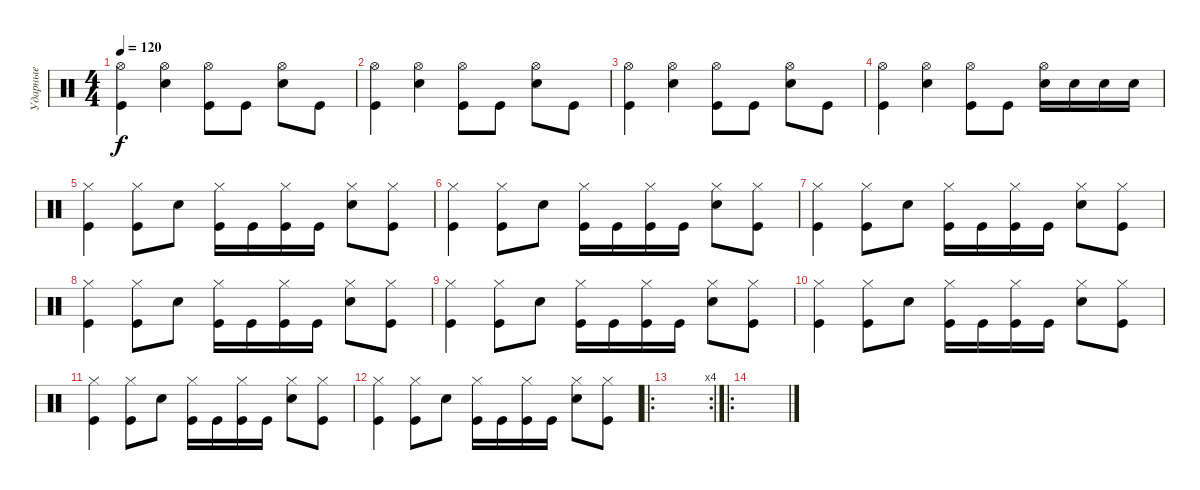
\track ("Ударные" "Ударные") {instrument percussion}
\staff {score}
\articulation defaults
\ts (4 4)
\tempo 120
\clef neutral
\ks c
("Kick (hit)" "Hi-Hat (open)").4{dy f} ("Electric Snare (hit)" "Hi-Hat (open)").4 ("Kick (hit)" "Hi-Hat (open)").8 "Kick (hit)".8 ("Electric Snare (hit)" "Hi-Hat (open)").8 "Kick (hit)".8 |
("Kick (hit)" "Hi-Hat (open)").4 ("Electric Snare (hit)" "Hi-Hat (open)").4 ("Kick (hit)" "Hi-Hat (open)").8 "Kick (hit)".8 ("Electric Snare (hit)" "Hi-Hat (open)").8 "Kick (hit)".8 |
("Kick (hit)" "Hi-Hat (open)").4 ("Electric Snare (hit)" "Hi-Hat (open)").4 ("Kick (hit)" "Hi-Hat (open)").8 "Kick (hit)".8 ("Electric Snare (hit)" "Hi-Hat (open)").8 "Kick (hit)".8 |
("Kick (hit)" "Hi-Hat (open)").4 ("Electric Snare (hit)" "Hi-Hat (open)").4 ("Kick (hit)" "Hi-Hat (open)").8 "Kick (hit)".8 ("Electric Snare (hit)" "Hi-Hat (open)").16 "Electric Snare (hit)".16 "Electric Snare (hit)".16 "Electric Snare (hit)".16 |
("Kick (hit)" "Hi-Hat (closed)").4 ("Kick (hit)" "Hi-Hat (closed)").8 "Electric Snare (hit)".8 ("Kick (hit)" "Hi-Hat (closed)").16 "Kick (hit)".16 ("Kick (hit)" "Hi-Hat (closed)").16 "Kick (hit)".16 ("Electric Snare (hit)" "Hi-Hat (closed)").8 ("Kick (hit)" "Hi-Hat (closed)").8 |
("Kick (hit)" "Hi-Hat (closed)").4 ("Kick (hit)" "Hi-Hat (closed)").8 "Electric Snare (hit)".8 ("Kick (hit)" "Hi-Hat (closed)").16 "Kick (hit)".16 ("Kick (hit)" "Hi-Hat (closed)").16 "Kick (hit)".16 ("Electric Snare (hit)" "Hi-Hat (closed)").8 ("Kick (hit)" "Hi-Hat (closed)").8 |
("Kick (hit)" "Hi-Hat (closed)").4 ("Kick (hit)" "Hi-Hat (closed)").8 "Electric Snare (hit)".8 ("Kick (hit)" "Hi-Hat (closed)").16 "Kick (hit)".16 ("Kick (hit)" "Hi-Hat (closed)").16 "Kick (hit)".16 ("Electric Snare (hit)" "Hi-Hat (closed)").8 ("Kick (hit)" "Hi-Hat (closed)").8 |
("Kick (hit)" "Hi-Hat (closed)").4 ("Kick (hit)" "Hi-Hat (closed)").8 "Electric Snare (hit)".8 ("Kick (hit)" "Hi-Hat (closed)").16 "Kick (hit)".16 ("Kick (hit)" "Hi-Hat (closed)").16 "Kick (hit)".16 ("Electric Snare (hit)" "Hi-Hat (closed)").8 ("Kick (hit)" "Hi-Hat (closed)").8 |
("Kick (hit)" "Hi-Hat (closed)").4 ("Kick (hit)" "Hi-Hat (closed)").8 "Electric Snare (hit)".8 ("Kick (hit)" "Hi-Hat (closed)").16 "Kick (hit)".16 ("Kick (hit)" "Hi-Hat (closed)").16 "Kick (hit)".16 ("Electric Snare (hit)" "Hi-Hat (closed)").8 ("Kick (hit)" "Hi-Hat (closed)").8 |
("Kick (hit)" "Hi-Hat (closed)").4 ("Kick (hit)" "Hi-Hat (closed)").8 "Electric Snare (hit)".8 ("Kick (hit)" "Hi-Hat (closed)").16 "Kick (hit)".16 ("Kick (hit)" "Hi-Hat (closed)").16 "Kick (hit)".16 ("Electric Snare (hit)" "Hi-Hat (closed)").8 ("Kick (hit)" "Hi-Hat (closed)").8 |
("Kick (hit)" "Hi-Hat (closed)").4 ("Kick (hit)" "Hi-Hat (closed)").8 "Electric Snare (hit)".8 ("Kick (hit)" "Hi-Hat (closed)").16 "Kick (hit)".16 ("Kick (hit)" "Hi-Hat (closed)").16 "Kick (hit)".16 ("Electric Snare (hit)" "Hi-Hat (closed)").8 ("Kick (hit)" "Hi-Hat (closed)").8 |
("Kick (hit)" "Hi-Hat (closed)").4 ("Kick (hit)" "Hi-Hat (closed)").8 "Electric Snare (hit)".8 ("Kick (hit)" "Hi-Hat (closed)").16 "Kick (hit)".16 ("Kick (hit)" "Hi-Hat (closed)").16 "Kick (hit)".16 ("Electric Snare (hit)" "Hi-Hat (closed)").8 ("Kick (hit)" "Hi-Hat (closed)").8 |
\ro
\rc 4
|
\ro
